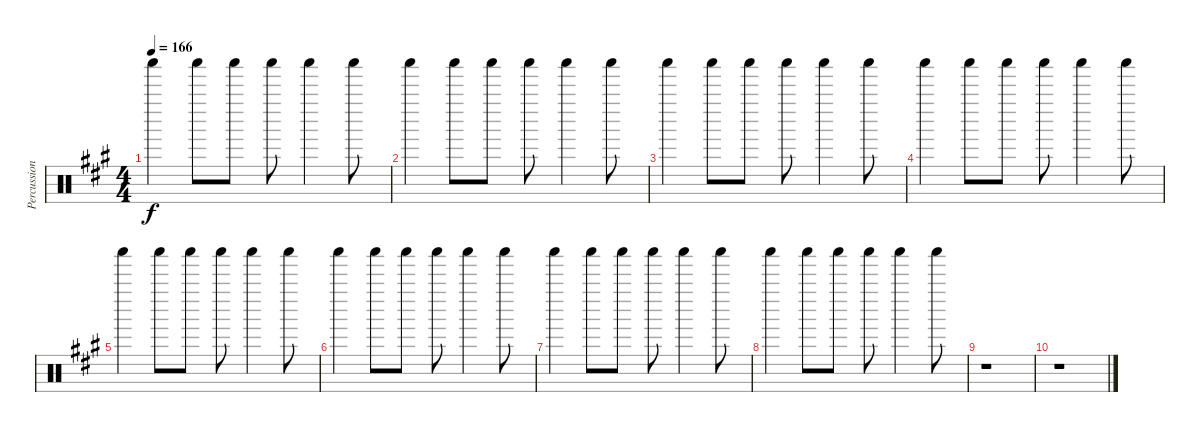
\track ("Percussion III" "Percussion") {instrument percussion}
\staff {score}
\articulation defaults
\ts (4 4)
\tempo 166
\clef neutral
\ks a "Shaker (hit)".4{dy f} "Shaker (hit)".8 "Shaker (hit)".8 "Shaker (hit)".8 "Shaker (hit)".4 "Shaker (hit)".8
|
"Shaker (hit)".4 "Shaker (hit)".8 "Shaker (hit)".8 "Shaker (hit)".8 "Shaker (hit)".4 "Shaker (hit)".8 |
"Shaker (hit)".4 "Shaker (hit)".8 "Shaker (hit)".8 "Shaker (hit)".8 "Shaker (hit)".4 "Shaker (hit)".8 |
"Shaker (hit)".4 "Shaker (hit)".8 "Shaker (hit)".8 "Shaker (hit)".8 "Shaker (hit)".4 "Shaker (hit)".8 |
"Shaker (hit)".4 "Shaker (hit)".8 "Shaker (hit)".8 "Shaker (hit)".8 "Shaker (hit)".4 "Shaker (hit)".8 |
"Shaker (hit)".4 "Shaker (hit)".8 "Shaker (hit)".8 "Shaker (hit)".8 "Shaker (hit)".4 "Shaker (hit)".8 |
"Shaker (hit)".4 "Shaker (hit)".8 "Shaker (hit)".8 "Shaker (hit)".8 "Shaker (hit)".4 "Shaker (hit)".8 |
"Shaker (hit)".4 "Shaker (hit)".8 "Shaker (hit)".8 "Shaker (hit)".8 "Shaker (hit)".4 "Shaker (hit)".8 |
r.1 |
r.1
